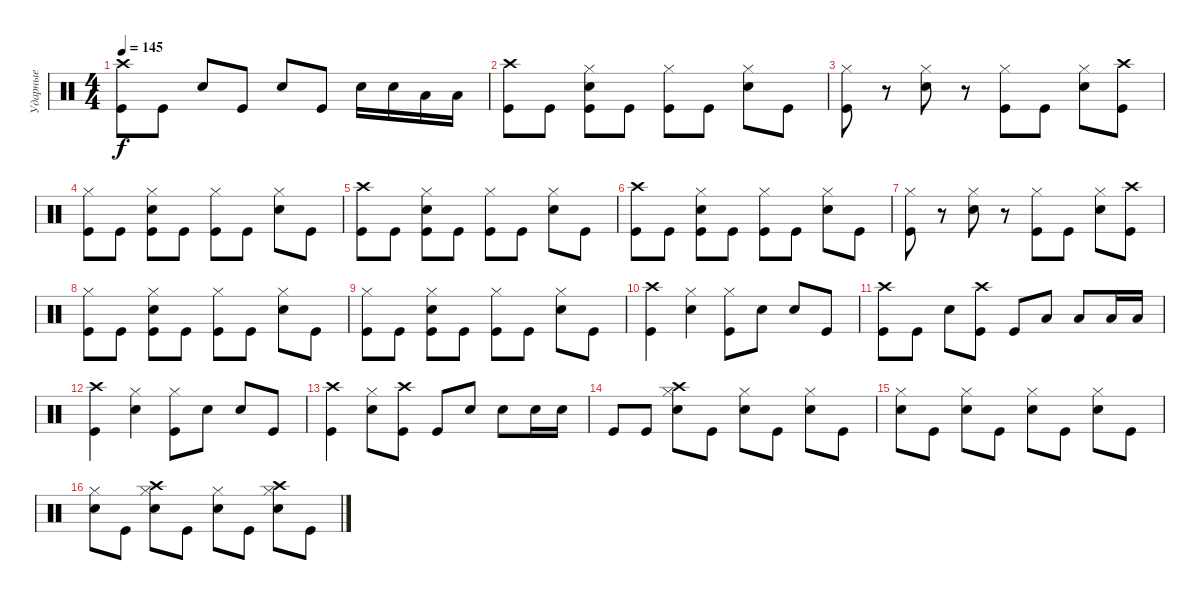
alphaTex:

\track ("Ударные" "Ударные") {instrument percussion}
\staff {score}
\articulation defaults
\ts (4 4)
\tempo 145
\clef neutral
\ks c
("Crash high (hit)"{t} "Kick (hit)"{t}).8{dy f} "Kick (hit)".8 "Electric Snare (hit)".8 "Kick (hit)".8 "Electric Snare (hit)".8 "Kick (hit)".8 "Electric Snare (hit)".16 "Electric Snare (hit)".16 "Low Tom (hit)".16 "Low Tom (hit)".16 |
("Crash high (hit)" "Kick (hit)").8 "Kick (hit)".8 ("Hi-Hat (closed)" "Electric Snare (hit)" "Kick (hit)").8 "Kick (hit)".8 ("Hi-Hat (closed)" "Kick (hit)").8 "Kick (hit)".8 ("Hi-Hat (closed)" "Electric Snare (hit)").8 "Kick (hit)".8 |
("Hi-Hat (closed)" "Kick (hit)").8 r.8 ("Hi-Hat (closed)" "Electric Snare (hit)").8 r.8 ("Hi-Hat (closed)" "Kick (hit)").8 "Kick (hit)".8 ("Hi-Hat (closed)" "Electric Snare (hit)").8 ("Crash high (hit)" "Kick (hit)").8 |
("Hi-Hat (closed)" "Kick (hit)").8 "Kick (hit)".8 ("Hi-Hat (closed)" "Electric Snare (hit)" "Kick (hit)").8 "Kick (hit)".8 ("Hi-Hat (closed)" "Kick (hit)").8 "Kick (hit)".8 ("Hi-Hat (closed)" "Electric Snare (hit)").8 "Kick (hit)".8 |
("Crash high (hit)" "Kick (hit)").8 "Kick (hit)".8 ("Hi-Hat (closed)" "Electric Snare (hit)" "Kick (hit)").8 "Kick (hit)".8 ("Hi-Hat (closed)" "Kick (hit)").8 "Kick (hit)".8 ("Hi-Hat (closed)" "Electric Snare (hit)").8 "Kick (hit)".8 |
("Crash high (hit)" "Kick (hit)").8 "Kick (hit)".8 ("Hi-Hat (closed)" "Electric Snare (hit)" "Kick (hit)").8 "Kick (hit)".8 ("Hi-Hat (closed)" "Kick (hit)").8 "Kick (hit)".8 ("Hi-Hat (closed)" "Electric Snare (hit)").8 "Kick (hit)".8 |
("Hi-Hat (closed)" "Kick (hit)").8 r.8 ("Hi-Hat (closed)" "Electric Snare (hit)").8 r.8 ("Hi-Hat (closed)" "Kick (hit)").8 "Kick (hit)".8 ("Hi-Hat (closed)" "Electric Snare (hit)").8 ("Crash high (hit)" "Kick (hit)").8 |
("Hi-Hat (closed)" "Kick (hit)").8 "Kick (hit)".8 ("Hi-Hat (closed)" "Electric Snare (hit)" "Kick (hit)").8 "Kick (hit)".8 ("Hi-Hat (closed)" "Kick (hit)").8 "Kick (hit)".8 ("Hi-Hat (closed)" "Electric Snare (hit)").8 "Kick (hit)".8 |
("Hi-Hat (closed)" "Kick (hit)").8 "Kick (hit)".8 ("Hi-Hat (closed)" "Electric Snare (hit)" "Kick (hit)").8 "Kick (hit)".8 ("Hi-Hat (closed)" "Kick (hit)").8 "Kick (hit)".8 ("Hi-Hat (closed)" "Electric Snare (hit)").8 "Kick (hit)".8 |
("Crash high (hit)" "Kick (hit)").4 ("Hi-Hat (closed)" "Electric Snare (hit)").4 ("Hi-Hat (closed)" "Kick (hit)").8 "Electric Snare (hit)".8 "Electric Snare (hit)".8 "Kick (hit)".8 |
("Crash high (hit)" "Kick (hit)").8 "Kick (hit)".8 "Electric Snare (hit)".8 ("Crash high (hit)" "Kick (hit)").8 "Kick (hit)".8 "Low Tom (hit)".8 "Low Tom (hit)".8 "Low Tom (hit)".16 "Low Tom (hit)".16 |
("Crash high (hit)" "Kick (hit)").4 ("Hi-Hat (closed)" "Electric Snare (hit)").4 ("Hi-Hat (closed)" "Kick (hit)").8 "Electric Snare (hit)".8 "Electric Snare (hit)".8 "Kick (hit)".8 |
("Crash high (hit)" "Kick (hit)").4 ("Hi-Hat (closed)" "Electric Snare (hit)").8 ("Crash high (hit)" "Kick (hit)").8 "Kick (hit)".8 "Electric Snare (hit)".8 "Electric Snare (hit)".8 "Electric Snare (hit)".16 "Electric Snare (hit)".16 |
"Kick (hit)".8 "Kick (hit)".8 ("Crash high (hit)" "Hi-Hat (closed)" "Electric Snare (hit)").8 "Kick (hit)".8 ("Hi-Hat (closed)" "Electric Snare (hit)").8 "Kick (hit)".8 ("Hi-Hat (closed)" "Electric Snare (hit)").8 "Kick (hit)".8 |
("Hi-Hat (closed)" "Electric Snare (hit)").8 "Kick (hit)".8 ("Hi-Hat (closed)" "Electric Snare (hit)").8 "Kick (hit)".8 ("Hi-Hat (closed)" "Electric Snare (hit)").8 "Kick (hit)".8 ("Hi-Hat (closed)" "Electric Snare (hit)").8 "Kick (hit)".8 |
("Hi-Hat (closed)" "Electric Snare (hit)").8 "Kick (hit)".8 ("Crash high (hit)" "Hi-Hat (closed)" "Electric Snare (hit)").8 "Kick (hit)".8 ("Hi-Hat (closed)" "Electric Snare (hit)").8 "Kick (hit)".8 ("Crash high (hit)" "Hi-Hat (closed)" "Electric Snare (hit)").8 "Kick (hit)".8
